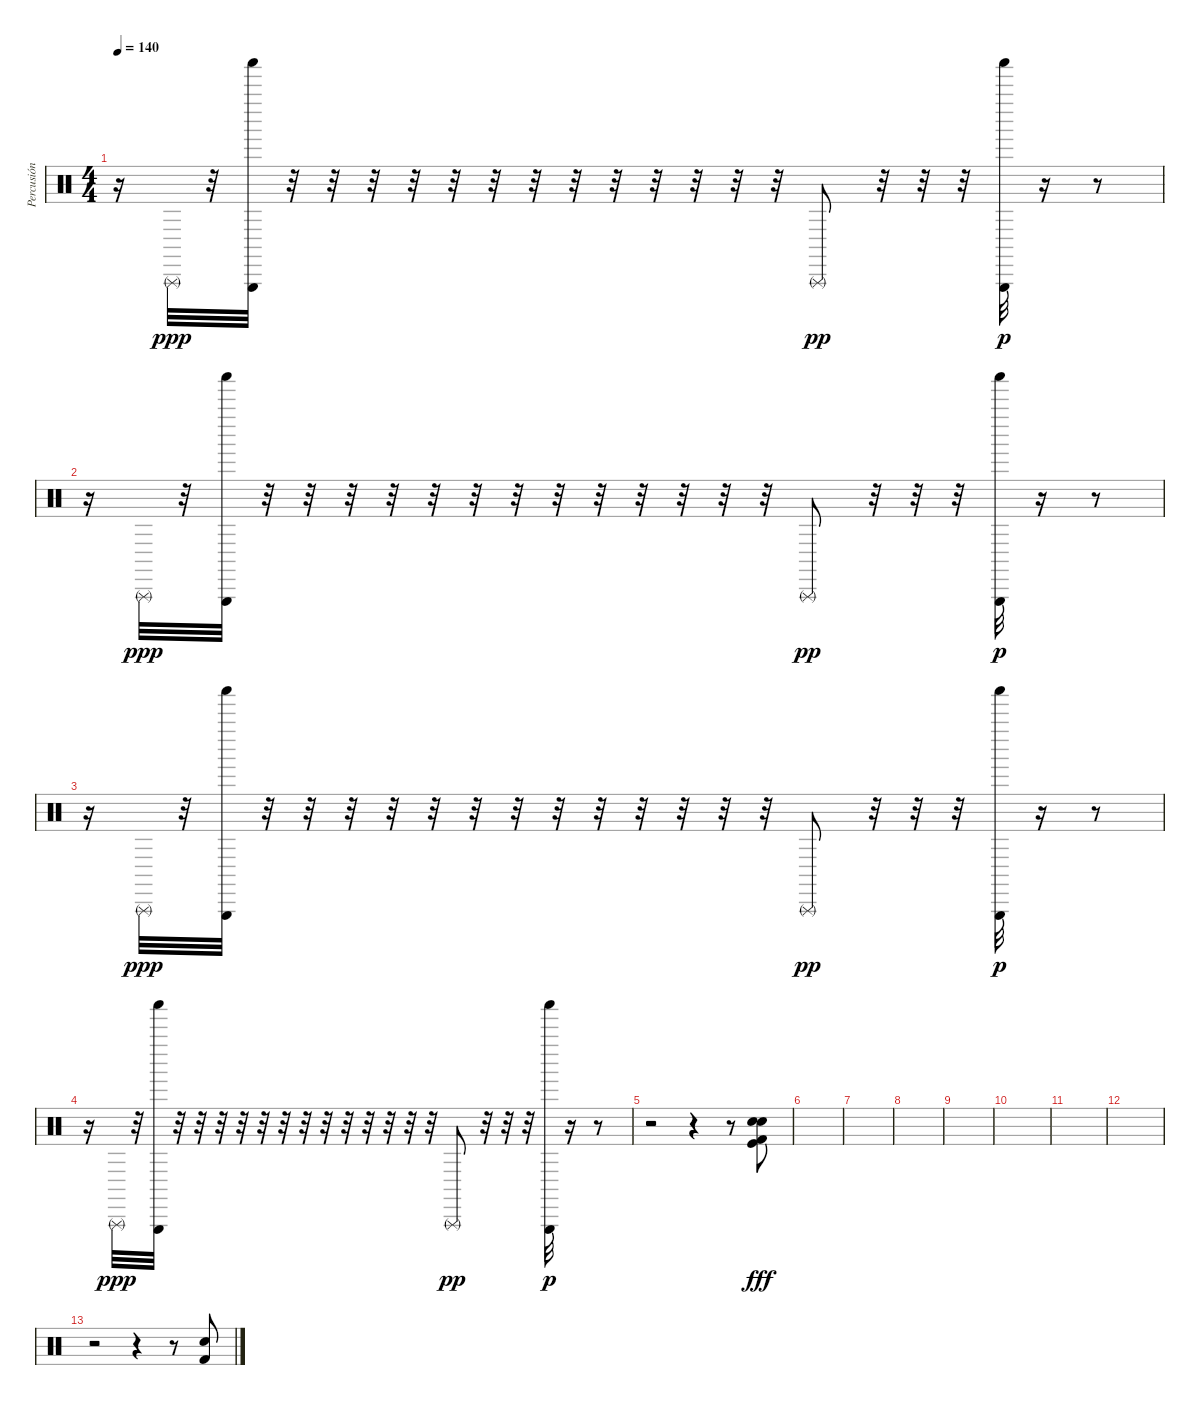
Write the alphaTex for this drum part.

\track ("Percusión Fredy Caldas" "Percusión ") {instrument percussion}
\staff {score}
\articulation defaults
\ts (4 4)
\tempo 140
\clef neutral
\ks c
r.16{dy ppp} "Triangle (rnute)".32 r.32 ("Triangle (hit)" "Shaker (hit)").32 r.32 r.32 r.32 r.32 r.32 r.32 r.32 r.32 r.32 r.32 r.32 r.32 r.32 "Triangle (rnute)".8{dy pp} r.32 r.32 r.32 ("Triangle (hit)" "Shaker (hit)").32{dy p} r.16 r.8 |
r.16 "Triangle (rnute)".32{dy ppp} r.32 ("Triangle (hit)" "Shaker (hit)").32 r.32 r.32 r.32 r.32 r.32 r.32 r.32 r.32 r.32 r.32 r.32 r.32 r.32 "Triangle (rnute)".8{dy pp} r.32 r.32 r.32 ("Triangle (hit)" "Shaker (hit)").32{dy p} r.16 r.8 |
r.16 "Triangle (rnute)".32{dy ppp} r.32 ("Triangle (hit)" "Shaker (hit)").32 r.32 r.32 r.32 r.32 r.32 r.32 r.32 r.32 r.32 r.32 r.32 r.32 r.32 "Triangle (rnute)".8{dy pp} r.32 r.32 r.32 ("Triangle (hit)" "Shaker (hit)").32{dy p} r.16 r.8 |
r.16 "Triangle (rnute)".32{dy ppp} r.32 ("Triangle (hit)" "Shaker (hit)").32 r.32 r.32 r.32 r.32 r.32 r.32 r.32 r.32 r.32 r.32 r.32 r.32 r.32 "Triangle (rnute)".8{dy pp} r.32 r.32 r.32 ("Triangle (hit)" "Shaker (hit)").32{dy p} r.16 r.8 |
r.2 r.4 r.8 ("Electric Snare (hit)" "Kick (hit) 2" "Kick (hit)" "Snare (hit) 2").8{dy fff} |
|
|
|
|
|
|
|
r.2 r.4 r.8 ("Kick (hit) 2" "Electric Snare (hit)").8
